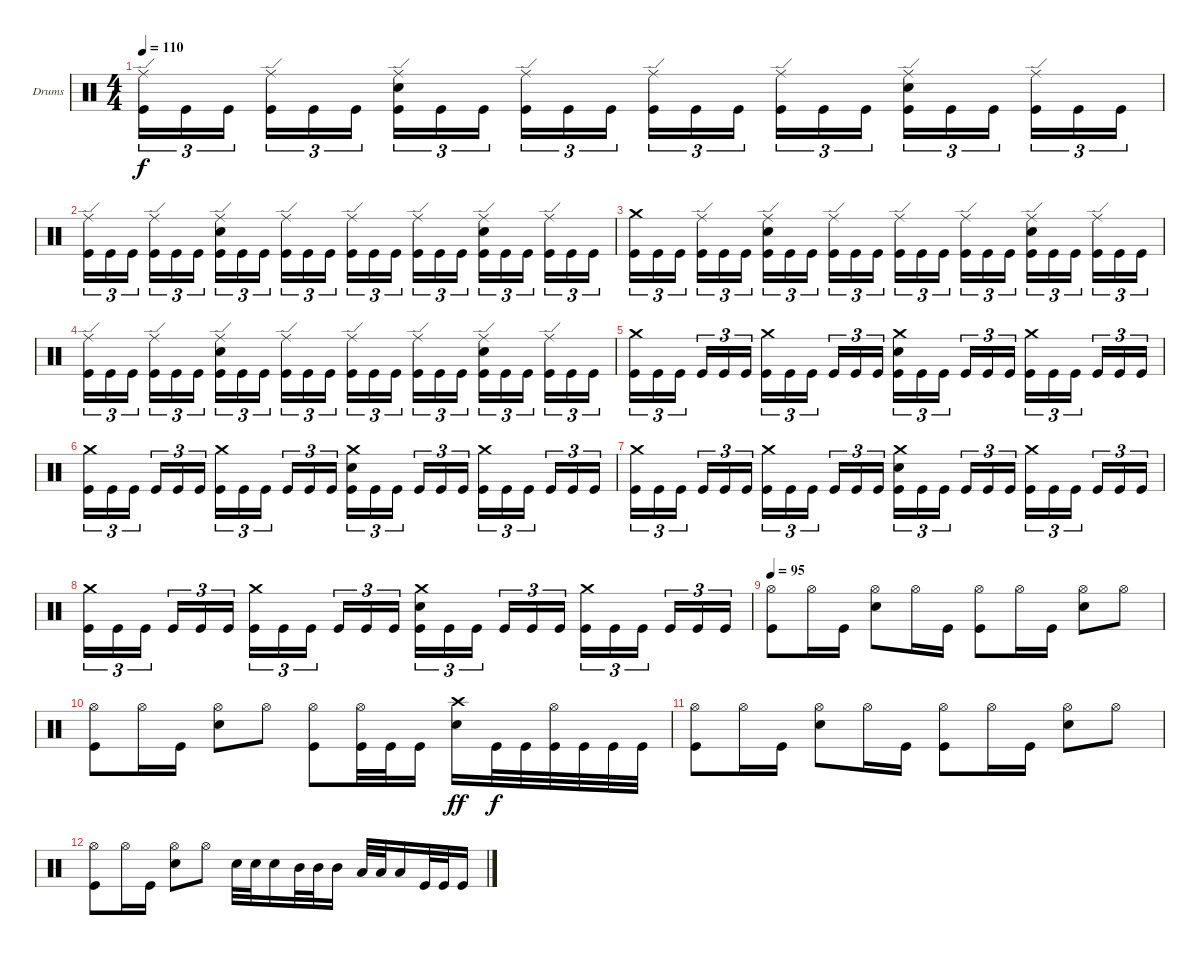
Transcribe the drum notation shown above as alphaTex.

\defaultSystemsLayout 4
\bracketExtendMode groupsimilarinstruments
\firstSystemTrackNameOrientation horizontal
\otherSystemsTrackNameOrientation horizontal
\track ("Drumkit" "Drums") {instrument percussion}
\staff {score}
\articulation defaults
\ts (4 4)
\tempo 110
\clef neutral
\ks c
("Ride (edge)" "Kick (hit)").16{tu (3 2) dy f} "Kick (hit)".16{tu (3 2)} "Kick (hit)".16{tu (3 2)} ("Ride (edge)" "Kick (hit)").16{tu (3 2)} "Kick (hit)".16{tu (3 2)} "Kick (hit)".16{tu (3 2)} ("Ride (edge)" "Snare (hit) 2" "Kick (hit)").16{tu (3 2)} "Kick (hit)".16{tu (3 2)} "Kick (hit)".16{tu (3 2)} ("Ride (edge)" "Kick (hit)").16{tu (3 2)} "Kick (hit)".16{tu (3 2)} "Kick (hit)".16{tu (3 2)} ("Ride (edge)" "Kick (hit)").16{tu (3 2)} "Kick (hit)".16{tu (3 2)} "Kick (hit)".16{tu (3 2)} ("Ride (edge)" "Kick (hit)").16{tu (3 2)} "Kick (hit)".16{tu (3 2)} "Kick (hit)".16{tu (3 2)} ("Ride (edge)" "Snare (hit) 2" "Kick (hit)").16{tu (3 2)} "Kick (hit)".16{tu (3 2)} "Kick (hit)".16{tu (3 2)} ("Ride (edge)" "Kick (hit)").16{tu (3 2)} "Kick (hit)".16{tu (3 2)} "Kick (hit)".16{tu (3 2)} |
("Ride (edge)" "Kick (hit)").16{tu (3 2)} "Kick (hit)".16{tu (3 2)} "Kick (hit)".16{tu (3 2)} ("Ride (edge)" "Kick (hit)").16{tu (3 2)} "Kick (hit)".16{tu (3 2)} "Kick (hit)".16{tu (3 2)} ("Ride (edge)" "Snare (hit) 2" "Kick (hit)").16{tu (3 2)} "Kick (hit)".16{tu (3 2)} "Kick (hit)".16{tu (3 2)} ("Ride (edge)" "Kick (hit)").16{tu (3 2)} "Kick (hit)".16{tu (3 2)} "Kick (hit)".16{tu (3 2)} ("Ride (edge)" "Kick (hit)").16{tu (3 2)} "Kick (hit)".16{tu (3 2)} "Kick (hit)".16{tu (3 2)} ("Ride (edge)" "Kick (hit)").16{tu (3 2)} "Kick (hit)".16{tu (3 2)} "Kick (hit)".16{tu (3 2)} ("Ride (edge)" "Snare (hit) 2" "Kick (hit)").16{tu (3 2)} "Kick (hit)".16{tu (3 2)} "Kick (hit)".16{tu (3 2)} ("Ride (edge)" "Kick (hit)").16{tu (3 2)} "Kick (hit)".16{tu (3 2)} "Kick (hit)".16{tu (3 2)} |
("Crash medium (hit)" "Kick (hit)").16{tu (3 2)} "Kick (hit)".16{tu (3 2)} "Kick (hit)".16{tu (3 2)} ("Ride (edge)" "Kick (hit)").16{tu (3 2)} "Kick (hit)".16{tu (3 2)} "Kick (hit)".16{tu (3 2)} ("Ride (edge)" "Snare (hit) 2" "Kick (hit)").16{tu (3 2)} "Kick (hit)".16{tu (3 2)} "Kick (hit)".16{tu (3 2)} ("Ride (edge)" "Kick (hit)").16{tu (3 2)} "Kick (hit)".16{tu (3 2)} "Kick (hit)".16{tu (3 2)} ("Ride (edge)" "Kick (hit)").16{tu (3 2)} "Kick (hit)".16{tu (3 2)} "Kick (hit)".16{tu (3 2)} ("Ride (edge)" "Kick (hit)").16{tu (3 2)} "Kick (hit)".16{tu (3 2)} "Kick (hit)".16{tu (3 2)} ("Ride (edge)" "Snare (hit) 2" "Kick (hit)").16{tu (3 2)} "Kick (hit)".16{tu (3 2)} "Kick (hit)".16{tu (3 2)} ("Ride (edge)" "Kick (hit)").16{tu (3 2)} "Kick (hit)".16{tu (3 2)} "Kick (hit)".16{tu (3 2)} |
("Ride (edge)" "Kick (hit)").16{tu (3 2)} "Kick (hit)".16{tu (3 2)} "Kick (hit)".16{tu (3 2)} ("Ride (edge)" "Kick (hit)").16{tu (3 2)} "Kick (hit)".16{tu (3 2)} "Kick (hit)".16{tu (3 2)} ("Ride (edge)" "Snare (hit) 2" "Kick (hit)").16{tu (3 2)} "Kick (hit)".16{tu (3 2)} "Kick (hit)".16{tu (3 2)} ("Ride (edge)" "Kick (hit)").16{tu (3 2)} "Kick (hit)".16{tu (3 2)} "Kick (hit)".16{tu (3 2)} ("Ride (edge)" "Kick (hit)").16{tu (3 2)} "Kick (hit)".16{tu (3 2)} "Kick (hit)".16{tu (3 2)} ("Ride (edge)" "Kick (hit)").16{tu (3 2)} "Kick (hit)".16{tu (3 2)} "Kick (hit)".16{tu (3 2)} ("Ride (edge)" "Snare (hit) 2" "Kick (hit)").16{tu (3 2)} "Kick (hit)".16{tu (3 2)} "Kick (hit)".16{tu (3 2)} ("Ride (edge)" "Kick (hit)").16{tu (3 2)} "Kick (hit)".16{tu (3 2)} "Kick (hit)".16{tu (3 2)} |
("Crash medium (hit)" "Kick (hit)").16{tu (3 2)} "Kick (hit)".16{tu (3 2)} "Kick (hit)".16{tu (3 2)} "Kick (hit)".16{tu (3 2)} "Kick (hit)".16{tu (3 2)} "Kick (hit)".16{tu (3 2)} ("Crash medium (hit)" "Kick (hit)").16{tu (3 2)} "Kick (hit)".16{tu (3 2)} "Kick (hit)".16{tu (3 2)} "Kick (hit)".16{tu (3 2)} "Kick (hit)".16{tu (3 2)} "Kick (hit)".16{tu (3 2)} ("Crash medium (hit)" "Snare (hit) 2" "Kick (hit)").16{tu (3 2)} "Kick (hit)".16{tu (3 2)} "Kick (hit)".16{tu (3 2)} "Kick (hit)".16{tu (3 2)} "Kick (hit)".16{tu (3 2)} "Kick (hit)".16{tu (3 2)} ("Crash medium (hit)" "Kick (hit)").16{tu (3 2)} "Kick (hit)".16{tu (3 2)} "Kick (hit)".16{tu (3 2)} "Kick (hit)".16{tu (3 2)} "Kick (hit)".16{tu (3 2)} "Kick (hit)".16{tu (3 2)} |
("Crash medium (hit)" "Kick (hit)").16{tu (3 2)} "Kick (hit)".16{tu (3 2)} "Kick (hit)".16{tu (3 2)} "Kick (hit)".16{tu (3 2)} "Kick (hit)".16{tu (3 2)} "Kick (hit)".16{tu (3 2)} ("Crash medium (hit)" "Kick (hit)").16{tu (3 2)} "Kick (hit)".16{tu (3 2)} "Kick (hit)".16{tu (3 2)} "Kick (hit)".16{tu (3 2)} "Kick (hit)".16{tu (3 2)} "Kick (hit)".16{tu (3 2)} ("Crash medium (hit)" "Snare (hit) 2" "Kick (hit)").16{tu (3 2)} "Kick (hit)".16{tu (3 2)} "Kick (hit)".16{tu (3 2)} "Kick (hit)".16{tu (3 2)} "Kick (hit)".16{tu (3 2)} "Kick (hit)".16{tu (3 2)} ("Crash medium (hit)" "Kick (hit)").16{tu (3 2)} "Kick (hit)".16{tu (3 2)} "Kick (hit)".16{tu (3 2)} "Kick (hit)".16{tu (3 2)} "Kick (hit)".16{tu (3 2)} "Kick (hit)".16{tu (3 2)} |
("Crash medium (hit)" "Kick (hit)").16{tu (3 2)} "Kick (hit)".16{tu (3 2)} "Kick (hit)".16{tu (3 2)} "Kick (hit)".16{tu (3 2)} "Kick (hit)".16{tu (3 2)} "Kick (hit)".16{tu (3 2)} ("Crash medium (hit)" "Kick (hit)").16{tu (3 2)} "Kick (hit)".16{tu (3 2)} "Kick (hit)".16{tu (3 2)} "Kick (hit)".16{tu (3 2)} "Kick (hit)".16{tu (3 2)} "Kick (hit)".16{tu (3 2)} ("Crash medium (hit)" "Snare (hit) 2" "Kick (hit)").16{tu (3 2)} "Kick (hit)".16{tu (3 2)} "Kick (hit)".16{tu (3 2)} "Kick (hit)".16{tu (3 2)} "Kick (hit)".16{tu (3 2)} "Kick (hit)".16{tu (3 2)} ("Crash medium (hit)" "Kick (hit)").16{tu (3 2)} "Kick (hit)".16{tu (3 2)} "Kick (hit)".16{tu (3 2)} "Kick (hit)".16{tu (3 2)} "Kick (hit)".16{tu (3 2)} "Kick (hit)".16{tu (3 2)} |
("Crash medium (hit)" "Kick (hit)").16{tu (3 2)} "Kick (hit)".16{tu (3 2)} "Kick (hit)".16{tu (3 2)} "Kick (hit)".16{tu (3 2)} "Kick (hit)".16{tu (3 2)} "Kick (hit)".16{tu (3 2)} ("Crash medium (hit)" "Kick (hit)").16{tu (3 2)} "Kick (hit)".16{tu (3 2)} "Kick (hit)".16{tu (3 2)} "Kick (hit)".16{tu (3 2)} "Kick (hit)".16{tu (3 2)} "Kick (hit)".16{tu (3 2)} ("Crash medium (hit)" "Snare (hit) 2" "Kick (hit)").16{tu (3 2)} "Kick (hit)".16{tu (3 2)} "Kick (hit)".16{tu (3 2)} "Kick (hit)".16{tu (3 2)} "Kick (hit)".16{tu (3 2)} "Kick (hit)".16{tu (3 2)} ("Crash medium (hit)" "Kick (hit)").16{tu (3 2)} "Kick (hit)".16{tu (3 2)} "Kick (hit)".16{tu (3 2)} "Kick (hit)".16{tu (3 2)} "Kick (hit)".16{tu (3 2)} "Kick (hit)".16{tu (3 2)} |
\tempo 95
("Hi-Hat (open)" "Kick (hit)").8 "Hi-Hat (open)".16 "Kick (hit)".16 ("Hi-Hat (open)" "Snare (hit) 2").8 "Hi-Hat (open)".16 "Kick (hit)".16 ("Hi-Hat (open)" "Kick (hit)").8 "Hi-Hat (open)".16 "Kick (hit)".16 ("Hi-Hat (open)" "Snare (hit) 2").8 "Hi-Hat (open)".8 |
("Hi-Hat (open)" "Kick (hit)").8 "Hi-Hat (open)".16 "Kick (hit)".16 ("Hi-Hat (open)" "Snare (hit) 2").8 "Hi-Hat (open)".8 ("Hi-Hat (open)" "Kick (hit)").8 ("Hi-Hat (open)" "Kick (hit)").32 "Kick (hit)".32 "Kick (hit)".16 ("Crash high (hit)" "Snare (hit) 2").16{dy ff} "Kick (hit)".32{dy f} "Kick (hit)".32 ("Hi-Hat (open)" "Kick (hit)").32 "Kick (hit)".32 "Kick (hit)".32 "Kick (hit)".32 |
("Hi-Hat (open)" "Kick (hit)").8 "Hi-Hat (open)".16 "Kick (hit)".16 ("Hi-Hat (open)" "Snare (hit) 2").8 "Hi-Hat (open)".16 "Kick (hit)".16 ("Hi-Hat (open)" "Kick (hit)").8 "Hi-Hat (open)".16 "Kick (hit)".16 ("Hi-Hat (open)" "Snare (hit) 2").8 "Hi-Hat (open)".8 |
("Hi-Hat (open)" "Kick (hit)").8 "Hi-Hat (open)".16 "Kick (hit)".16 ("Hi-Hat (open)" "Snare (hit) 2").8 "Hi-Hat (open)".8 "Snare (hit) 2".32 "Snare (hit) 2".32 "Snare (hit) 2".16 "Mid Tom (hit)".32 "Mid Tom (hit)".32 "Mid Tom (hit)".16 "Low Tom (hit)".32 "Low Tom (hit)".32 "Low Tom (hit)".16 "Kick (hit)".32 "Kick (hit)".32 "Kick (hit)".16
